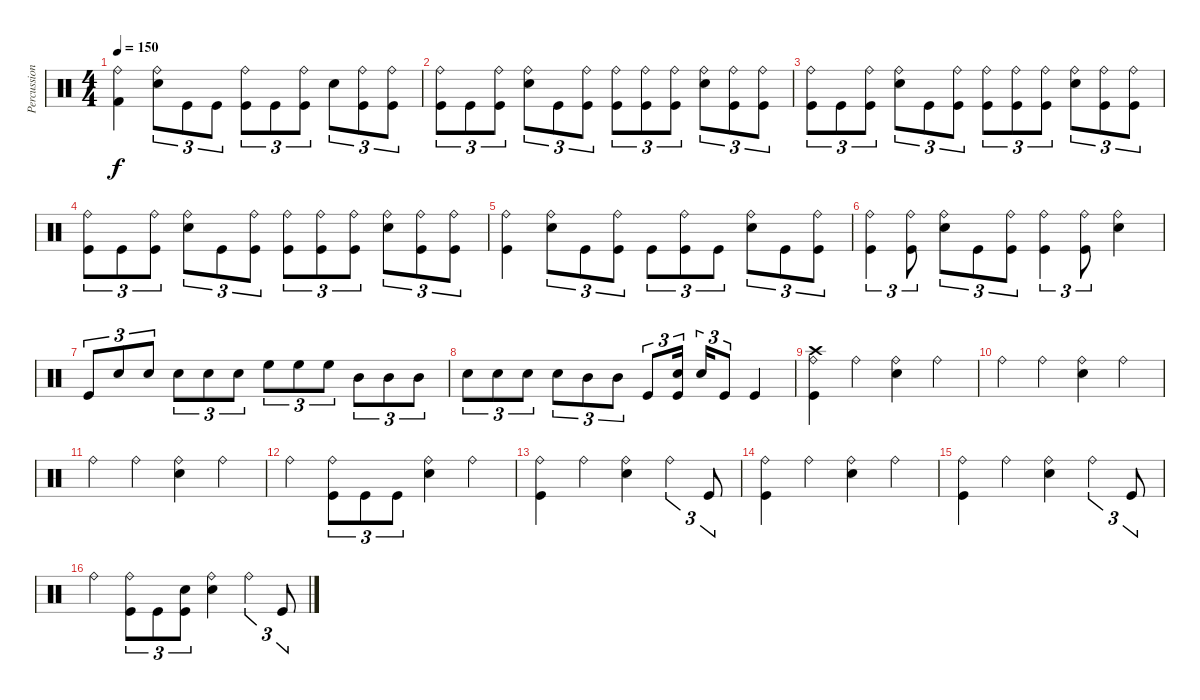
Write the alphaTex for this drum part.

\track ("Percussion" "Percussion") {instrument percussion}
\staff {score}
\articulation defaults
\ts (4 4)
\tempo 150
\clef neutral
\ks c
("Ride (bell)" "Kick (hit) 2").4{dy f} ("Ride (bell)" "Snare (hit) 2").8{tu (3 2)} "Kick (hit)".8{tu (3 2)} "Kick (hit)".8{tu (3 2)} ("Ride (bell)" "Kick (hit)").8{tu (3 2)} "Kick (hit)".8{tu (3 2)} ("Ride (bell)" "Kick (hit)").8{tu (3 2)} "Snare (hit) 2".8{tu (3 2)} ("Ride (bell)" "Kick (hit)").8{tu (3 2)} ("Ride (bell)" "Kick (hit)").8{tu (3 2)} |
("Ride (bell)" "Kick (hit)").8{tu (3 2)} "Kick (hit)".8{tu (3 2)} ("Ride (bell)" "Kick (hit)").8{tu (3 2)} ("Ride (bell)" "Snare (hit) 2").8{tu (3 2)} "Kick (hit)".8{tu (3 2)} ("Ride (bell)" "Kick (hit)").8{tu (3 2)} ("Ride (bell)" "Kick (hit)").8{tu (3 2)} ("Ride (bell)" "Kick (hit)").8{tu (3 2)} ("Ride (bell)" "Kick (hit)").8{tu (3 2)} ("Ride (bell)" "Snare (hit) 2").8{tu (3 2)} ("Ride (bell)" "Kick (hit)").8{tu (3 2)} ("Ride (bell)" "Kick (hit)").8{tu (3 2)} |
("Ride (bell)" "Kick (hit)").8{tu (3 2)} "Kick (hit)".8{tu (3 2)} ("Ride (bell)" "Kick (hit)").8{tu (3 2)} ("Ride (bell)" "Snare (hit) 2").8{tu (3 2)} "Kick (hit)".8{tu (3 2)} ("Ride (bell)" "Kick (hit)").8{tu (3 2)} ("Ride (bell)" "Kick (hit)").8{tu (3 2)} ("Ride (bell)" "Kick (hit)").8{tu (3 2)} ("Ride (bell)" "Kick (hit)").8{tu (3 2)} ("Ride (bell)" "Snare (hit) 2").8{tu (3 2)} ("Ride (bell)" "Kick (hit)").8{tu (3 2)} ("Ride (bell)" "Kick (hit)").8{tu (3 2)} |
("Ride (bell)" "Kick (hit)").8{tu (3 2)} "Kick (hit)".8{tu (3 2)} ("Ride (bell)" "Kick (hit)").8{tu (3 2)} ("Ride (bell)" "Snare (hit) 2").8{tu (3 2)} "Kick (hit)".8{tu (3 2)} ("Ride (bell)" "Kick (hit)").8{tu (3 2)} ("Ride (bell)" "Kick (hit)").8{tu (3 2)} ("Ride (bell)" "Kick (hit)").8{tu (3 2)} ("Ride (bell)" "Kick (hit)").8{tu (3 2)} ("Ride (bell)" "Snare (hit) 2").8{tu (3 2)} ("Ride (bell)" "Kick (hit)").8{tu (3 2)} ("Ride (bell)" "Kick (hit)").8{tu (3 2)} |
("Ride (bell)" "Kick (hit)").4 ("Ride (bell)" "Snare (hit) 2").8{tu (3 2)} "Kick (hit)".8{tu (3 2)} ("Ride (bell)" "Kick (hit)").8{tu (3 2)} "Kick (hit)".8{tu (3 2)} ("Ride (bell)" "Kick (hit)").8{tu (3 2)} "Kick (hit)".8{tu (3 2)} ("Ride (bell)" "Snare (hit) 2").8{tu (3 2)} "Kick (hit)".8{tu (3 2)} ("Ride (bell)" "Kick (hit)").8{tu (3 2)} |
("Ride (bell)" "Kick (hit)").4{tu (3 2)} ("Ride (bell)" "Kick (hit)").8{tu (3 2)} ("Ride (bell)" "Snare (hit) 2").8{tu (3 2)} "Kick (hit)".8{tu (3 2)} ("Ride (bell)" "Kick (hit)").8{tu (3 2)} ("Ride (bell)" "Kick (hit)").4{tu (3 2)} ("Ride (bell)" "Kick (hit)").8{tu (3 2)} ("Ride (bell)" "Snare (hit) 2").4 |
"Kick (hit)".8{tu (3 2)} "Snare (hit) 2".8{tu (3 2)} "Snare (hit) 2".8{tu (3 2)} "Snare (hit) 2".8{tu (3 2)} "Snare (hit) 2".8{tu (3 2)} "Snare (hit) 2".8{tu (3 2)} "High Floor Tom (hit)".8{tu (3 2)} "High Floor Tom (hit)".8{tu (3 2)} "High Floor Tom (hit)".8{tu (3 2)} "Mid Tom (hit)".8{tu (3 2)} "Mid Tom (hit)".8{tu (3 2)} "Mid Tom (hit)".8{tu (3 2)} |
"Snare (hit) 2".8{tu (3 2)} "Snare (hit) 2".8{tu (3 2)} "Snare (hit) 2".8{tu (3 2)} "Snare (hit) 2".8{tu (3 2)} "Mid Tom (hit)".8{tu (3 2)} "Mid Tom (hit)".8{tu (3 2)} "Kick (hit)".8{tu (3 2)} ("Snare (hit) 2" "Kick (hit)").16{tu (3 2)} "Snare (hit) 2".16{tu (3 2)} "Kick (hit)".8{tu (3 2)} "Kick (hit)".4 |
("Ride (bell)" "Crash high (hit)" "Kick (hit)").4 "Ride (bell)".4 ("Ride (bell)" "Snare (hit) 2").4 "Ride (bell)".4 |
"Ride (bell)".4 "Ride (bell)".4 ("Ride (bell)" "Snare (hit) 2").4 "Ride (bell)".4 |
"Ride (bell)".4 "Ride (bell)".4 ("Ride (bell)" "Snare (hit) 2").4 "Ride (bell)".4 |
"Ride (bell)".4 ("Ride (bell)" "Kick (hit)").8{tu (3 2)} "Kick (hit)".8{tu (3 2)} "Kick (hit)".8{tu (3 2)} ("Ride (bell)" "Snare (hit) 2").4 "Ride (bell)".4 |
("Ride (bell)" "Kick (hit)").4 "Ride (bell)".4 ("Ride (bell)" "Snare (hit) 2").4 "Ride (bell)".4{tu (3 2)} "Kick (hit)".8{tu (3 2)} |
("Ride (bell)" "Kick (hit)").4 "Ride (bell)".4 ("Ride (bell)" "Snare (hit) 2").4 "Ride (bell)".4 |
("Ride (bell)" "Kick (hit)").4 "Ride (bell)".4 ("Ride (bell)" "Snare (hit) 2").4 "Ride (bell)".4{tu (3 2)} "Kick (hit)".8{tu (3 2)} |
"Ride (bell)".4 ("Ride (bell)" "Kick (hit)").8{tu (3 2)} "Kick (hit)".8{tu (3 2)} ("Snare (hit) 2" "Kick (hit)").8{tu (3 2)} ("Ride (bell)" "Snare (hit) 2").4 "Ride (bell)".4{tu (3 2)} "Kick (hit)".8{tu (3 2)}
